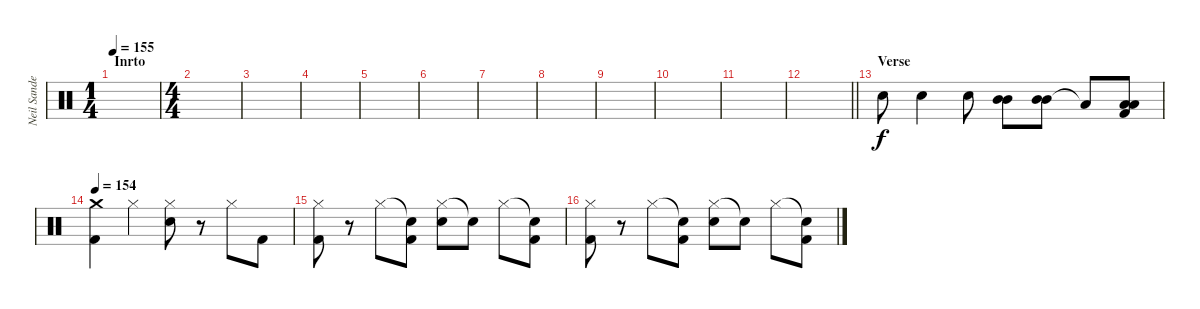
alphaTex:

\track ("Neil Sanderson" "Neil Sande") {instrument percussion}
\staff {score}
\articulation defaults
\ts (1 4)
\section ("" "Inrto")
\tempo 155
\clef neutral
\ks c
|
\ts (4 4)
|
|
|
|
|
|
|
|
|
|
\barLineRight lightlight
|
\section ("" "Verse ")
"Snare (hit) 2".8 "Snare (hit) 2".4 "Snare (hit) 2".8 ("Mid Tom (hit)" "Mid Tom (hit)").8 ("Mid Tom (hit)" "Mid Tom (hit)").8 "Low Floor Tom (hit)"{t}.8 ("Low Tom (hit)" "Low Tom (hit)" "Kick (hit) 2").8 |
\tempo 154
("Crash medium (hit)" "Kick (hit) 2").4 "Hi-Hat (closed)".4 ("Hi-Hat (closed)" "Snare (hit) 2").8 r.8 "Hi-Hat (closed)".8 "Kick (hit) 2".8 |
("Hi-Hat (closed)" "Kick (hit) 2").8 r.8 "Hi-Hat (closed)".8 ("Snare (hit)"{t} "Kick (hit) 2").8 ("Hi-Hat (closed)" "Snare (hit) 2").8 "Snare (hit)"{t}.8 "Hi-Hat (closed)".8 ("Snare (hit)"{t} "Kick (hit) 2").8 |
("Hi-Hat (closed)" "Kick (hit) 2").8 r.8 "Hi-Hat (closed)".8 ("Snare (hit)"{t} "Kick (hit) 2").8 ("Hi-Hat (closed)" "Snare (hit) 2").8 "Snare (hit)"{t}.8 "Hi-Hat (closed)".8 ("Snare (hit)"{t} "Kick (hit) 2").8
